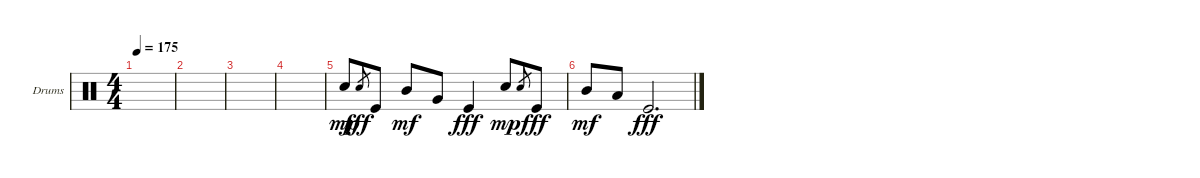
\defaultSystemsLayout 4
\bracketExtendMode groupsimilarinstruments
\firstSystemTrackNameOrientation horizontal
\otherSystemsTrackNameOrientation horizontal
\track ("Helders" "Drums") {instrument percussion}
\staff {score}
\articulation defaults
\ts (4 4)
\tempo 175
\clef neutral
\ks c
|
|
|
|
"Snare (hit) 2".8{dy mp} "Snare (hit) 2".8{gr dy fff} "Kick (hit)".8 "Mid Tom (hit)".8{dy mf} "Very Low Tom (hit)".8 "Kick (hit)".4{dy fff} "Snare (hit) 2".8{dy mp} "Snare (hit) 2".8{gr} "Kick (hit)".8{dy fff} |
"Mid Tom (hit)".8{dy mf} "Low Tom (hit)".8 "Kick (hit)".2{d dy fff}
